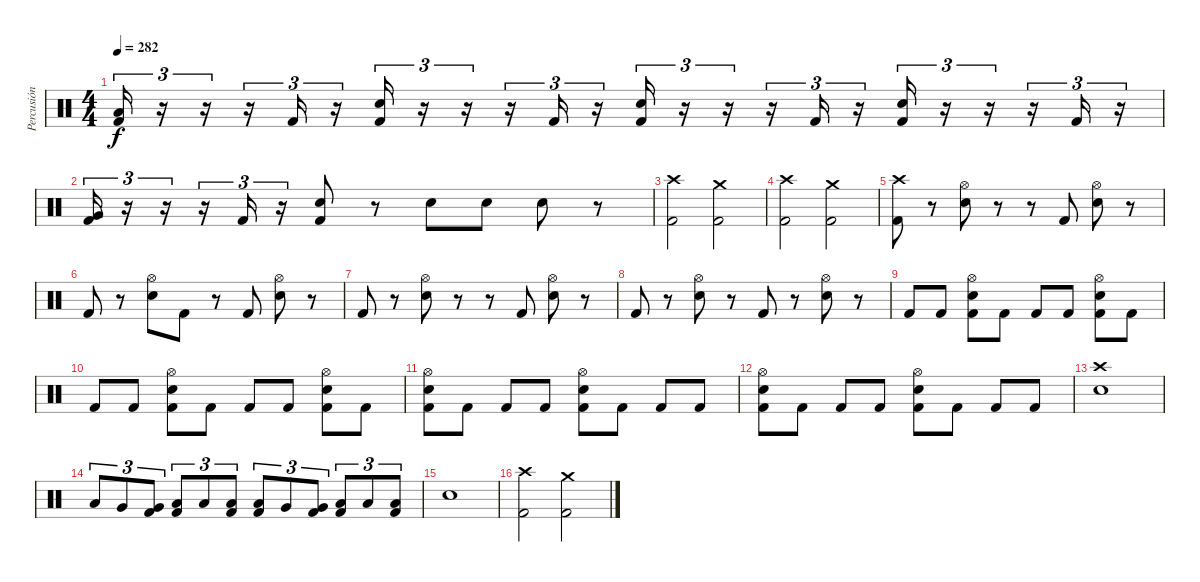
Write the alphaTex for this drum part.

\track ("Percusión" "Percusión") {instrument percussion}
\staff {score}
\articulation defaults
\ts (4 4)
\tempo 282
\clef neutral
\ks c
("Kick (hit) 2" "Low Tom (hit)").16{tu (3 2) dy f} r.16{tu (3 2)} r.16{tu (3 2)} r.16{tu (3 2)} "Kick (hit) 2".16{tu (3 2)} r.16{tu (3 2)} ("Kick (hit) 2" "Snare (hit) 2").16{tu (3 2)} r.16{tu (3 2)} r.16{tu (3 2)} r.16{tu (3 2)} "Kick (hit) 2".16{tu (3 2)} r.16{tu (3 2)} ("Kick (hit) 2" "Snare (hit) 2").16{tu (3 2)} r.16{tu (3 2)} r.16{tu (3 2)} r.16{tu (3 2)} "Kick (hit) 2".16{tu (3 2)} r.16{tu (3 2)} ("Kick (hit) 2" "Snare (hit) 2").16{tu (3 2)} r.16{tu (3 2)} r.16{tu (3 2)} r.16{tu (3 2)} "Kick (hit) 2".16{tu (3 2)} r.16{tu (3 2)} |
("Kick (hit) 2" "Very Low Tom (hit)").16{tu (3 2)} r.16{tu (3 2)} r.16{tu (3 2)} r.16{tu (3 2)} "Kick (hit) 2".16{tu (3 2)} r.16{tu (3 2)} ("Kick (hit) 2" "Snare (hit) 2").8 r.8 "Snare (hit) 2".8 "Snare (hit) 2".8 "Snare (hit) 2".8 r.8 |
("Kick (hit) 2" "Crash high (hit)").2 ("Kick (hit) 2" "Crash medium (hit)").2 |
("Kick (hit) 2" "Crash high (hit)").2 ("Kick (hit) 2" "Crash medium (hit)").2 |
("Kick (hit) 2" "Crash high (hit)").8 r.8 ("Snare (hit) 2" "Hi-Hat (open)").8 r.8 r.8 "Kick (hit) 2".8 ("Snare (hit) 2" "Hi-Hat (open)").8 r.8 |
"Kick (hit) 2".8 r.8 ("Snare (hit) 2" "Hi-Hat (open)").8 "Kick (hit) 2".8 r.8 "Kick (hit) 2".8 ("Snare (hit) 2" "Hi-Hat (open)").8 r.8 |
"Kick (hit) 2".8 r.8 ("Snare (hit) 2" "Hi-Hat (open)").8 r.8 r.8 "Kick (hit) 2".8 ("Snare (hit) 2" "Hi-Hat (open)").8 r.8 |
"Kick (hit) 2".8 r.8 ("Snare (hit) 2" "Hi-Hat (open)").8 r.8 "Kick (hit) 2".8 r.8 ("Snare (hit) 2" "Hi-Hat (open)").8 r.8 |
"Kick (hit) 2".8 "Kick (hit) 2".8 ("Kick (hit) 2" "Snare (hit) 2" "Hi-Hat (open)").8 "Kick (hit) 2".8 "Kick (hit) 2".8 "Kick (hit) 2".8 ("Kick (hit) 2" "Snare (hit) 2" "Hi-Hat (open)").8 "Kick (hit) 2".8 |
"Kick (hit) 2".8 "Kick (hit) 2".8 ("Kick (hit) 2" "Snare (hit) 2" "Hi-Hat (open)").8 "Kick (hit) 2".8 "Kick (hit) 2".8 "Kick (hit) 2".8 ("Kick (hit) 2" "Snare (hit) 2" "Hi-Hat (open)").8 "Kick (hit) 2".8 |
("Kick (hit) 2" "Snare (hit) 2" "Hi-Hat (open)").8 "Kick (hit) 2".8 "Kick (hit) 2".8 "Kick (hit) 2".8 ("Kick (hit) 2" "Snare (hit) 2" "Hi-Hat (open)").8 "Kick (hit) 2".8 "Kick (hit) 2".8 "Kick (hit) 2".8 |
("Kick (hit) 2" "Snare (hit) 2" "Hi-Hat (open)").8 "Kick (hit) 2".8 "Kick (hit) 2".8 "Kick (hit) 2".8 ("Kick (hit) 2" "Snare (hit) 2" "Hi-Hat (open)").8 "Kick (hit) 2".8 "Kick (hit) 2".8 "Kick (hit) 2".8 |
("Snare (hit) 2" "Crash high (hit)").1 |
"Low Tom (hit)".8{tu (3 2)} "Very Low Tom (hit)".8{tu (3 2)} ("Kick (hit) 2" "Very Low Tom (hit)").8{tu (3 2)} ("Kick (hit) 2" "Low Floor Tom (hit)").8{tu (3 2)} "Low Floor Tom (hit)".8{tu (3 2)} ("Kick (hit) 2" "Low Floor Tom (hit)").8{tu (3 2)} ("Kick (hit) 2" "Low Tom (hit)").8{tu (3 2)} "Very Low Tom (hit)".8{tu (3 2)} ("Kick (hit) 2" "Very Low Tom (hit)").8{tu (3 2)} ("Kick (hit) 2" "Low Floor Tom (hit)").8{tu (3 2)} "Low Floor Tom (hit)".8{tu (3 2)} ("Kick (hit) 2" "Low Floor Tom (hit)").8{tu (3 2)} |
"Snare (hit) 2".1 |
("Kick (hit) 2" "Crash high (hit)").2 ("Kick (hit) 2" "Crash medium (hit)").2
